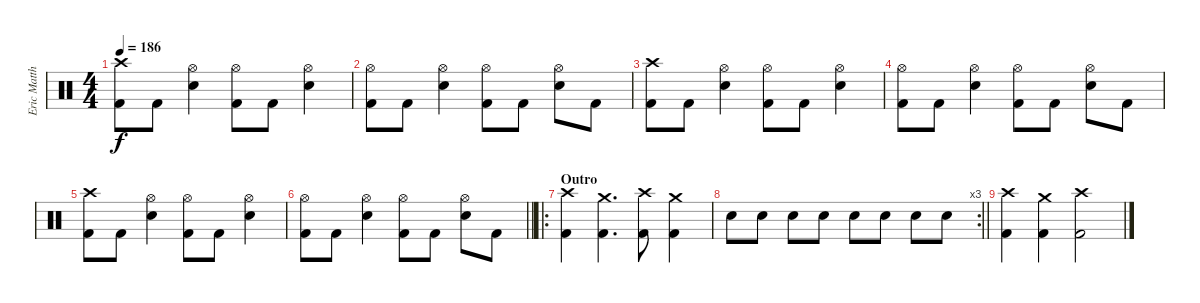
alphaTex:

\track ("Eric Matthews" "Eric Matth") {instrument percussion}
\staff {score}
\articulation defaults
\ts (4 4)
\tempo 186
\clef neutral
\ks c
("Crash high (hit)" "Kick (hit) 2").8{dy f} "Kick (hit) 2".8 ("Hi-Hat (open)" "Electric Snare (hit)").4 ("Hi-Hat (open)" "Kick (hit) 2").8 "Kick (hit) 2".8 ("Hi-Hat (open)" "Electric Snare (hit)").4 |
("Hi-Hat (open)" "Kick (hit) 2").8 "Kick (hit) 2".8 ("Hi-Hat (open)" "Electric Snare (hit)").4 ("Hi-Hat (open)" "Kick (hit) 2").8 "Kick (hit) 2".8 ("Hi-Hat (open)" "Electric Snare (hit)").8 "Kick (hit) 2".8 |
("Crash high (hit)" "Kick (hit) 2").8 "Kick (hit) 2".8 ("Hi-Hat (open)" "Electric Snare (hit)").4 ("Hi-Hat (open)" "Kick (hit) 2").8 "Kick (hit) 2".8 ("Hi-Hat (open)" "Electric Snare (hit)").4 |
("Hi-Hat (open)" "Kick (hit) 2").8 "Kick (hit) 2".8 ("Hi-Hat (open)" "Electric Snare (hit)").4 ("Hi-Hat (open)" "Kick (hit) 2").8 "Kick (hit) 2".8 ("Hi-Hat (open)" "Electric Snare (hit)").8 "Kick (hit) 2".8 |
("Crash high (hit)" "Kick (hit) 2").8 "Kick (hit) 2".8 ("Hi-Hat (open)" "Electric Snare (hit)").4 ("Hi-Hat (open)" "Kick (hit) 2").8 "Kick (hit) 2".8 ("Hi-Hat (open)" "Electric Snare (hit)").4 |
\barLineRight lightlight
("Hi-Hat (open)" "Kick (hit) 2").8 "Kick (hit) 2".8 ("Hi-Hat (open)" "Electric Snare (hit)").4 ("Hi-Hat (open)" "Kick (hit) 2").8 "Kick (hit) 2".8 ("Hi-Hat (open)" "Electric Snare (hit)").8 "Kick (hit) 2".8 |
\ro
\section ("" "Outro")
("Crash high (hit)" "Kick (hit) 2").4 ("Crash medium (hit)" "Kick (hit) 2").4{d} ("Crash high (hit)" "Kick (hit) 2").8 ("Crash medium (hit)" "Kick (hit) 2").4 |
\rc 3
\barLineRight lightlight "Electric Snare (hit)".8 "Electric Snare (hit)".8 "Electric Snare (hit)".8 "Electric Snare (hit)".8 "Electric Snare (hit)".8 "Electric Snare (hit)".8 "Electric Snare (hit)".8 "Electric Snare (hit)".8
|
("Crash high (hit)" "Kick (hit) 2").4 ("Crash medium (hit)" "Kick (hit) 2").4 ("Crash high (hit)" "Kick (hit) 2").2
